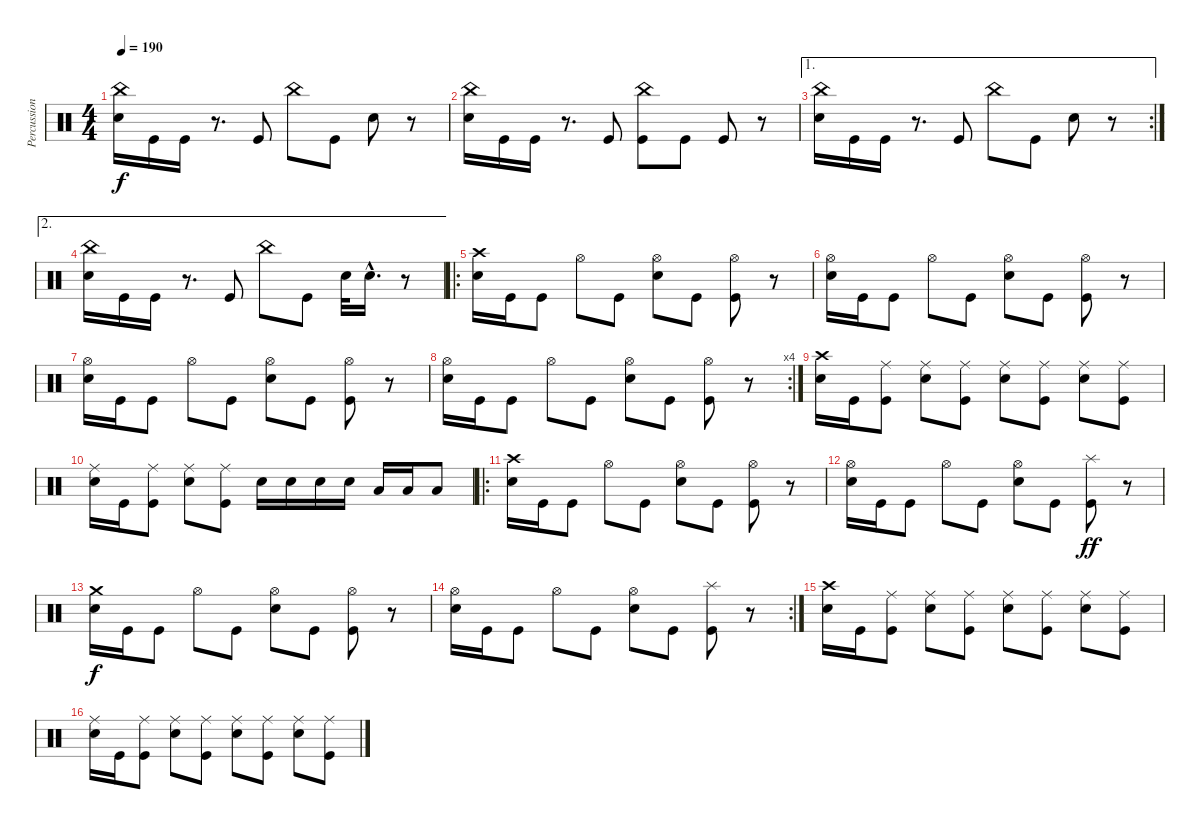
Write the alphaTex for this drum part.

\track ("Percussion" "Percussion") {instrument percussion}
\staff {score}
\articulation defaults
\ts (4 4)
\tempo 190
\clef neutral
\ks c
("China (hit)" "Electric Snare (hit)").16{dy f} "Kick (hit)".16 "Kick (hit)".16 r.8{d} "Kick (hit)".8 "China (hit)".8 "Kick (hit)".8 "Electric Snare (hit)".8 r.8 |
("China (hit)" "Electric Snare (hit)").16 "Kick (hit)".16 "Kick (hit)".16 r.8{d} "Kick (hit)".8 ("China (hit)" "Kick (hit)").8 "Kick (hit)".8 "Kick (hit)".8 r.8 |
\ae 1
\rc 2
("China (hit)" "Electric Snare (hit)").16 "Kick (hit)".16 "Kick (hit)".16 r.8{d} "Kick (hit)".8 "China (hit)".8 "Kick (hit)".8 "Electric Snare (hit)".8 r.8 |
\ae 2
("China (hit)" "Electric Snare (hit)").16 "Kick (hit)".16 "Kick (hit)".16 r.8{d} "Kick (hit)".8 "China (hit)".8 "Kick (hit)".8 "Electric Snare (hit)".32 "Electric Snare (hit)"{hac}.16{d} r.8 |
\ro
("Crash high (hit)" "Electric Snare (hit)").16 "Kick (hit)".16 "Kick (hit)".8 "Hi-Hat (open)".8 "Kick (hit)".8 ("Hi-Hat (open)" "Electric Snare (hit)").8 "Kick (hit)".8 ("Hi-Hat (open)" "Kick (hit)").8 r.8 |
("Hi-Hat (open)" "Electric Snare (hit)").16 "Kick (hit)".16 "Kick (hit)".8 "Hi-Hat (open)".8 "Kick (hit)".8 ("Hi-Hat (open)" "Electric Snare (hit)").8 "Kick (hit)".8 ("Hi-Hat (open)" "Kick (hit)").8 r.8 |
("Hi-Hat (open)" "Electric Snare (hit)").16 "Kick (hit)".16 "Kick (hit)".8 "Hi-Hat (open)".8 "Kick (hit)".8 ("Hi-Hat (open)" "Electric Snare (hit)").8 "Kick (hit)".8 ("Hi-Hat (open)" "Kick (hit)").8 r.8 |
\rc 4
("Hi-Hat (open)" "Electric Snare (hit)").16 "Kick (hit)".16 "Kick (hit)".8 "Hi-Hat (open)".8 "Kick (hit)".8 ("Hi-Hat (open)" "Electric Snare (hit)").8 "Kick (hit)".8 ("Hi-Hat (open)" "Kick (hit)").8 r.8 |
("Crash high (hit)" "Electric Snare (hit)").16 "Kick (hit)".16 ("Ride (middle)" "Kick (hit)").8 ("Ride (middle)" "Electric Snare (hit)").8 ("Ride (middle)" "Kick (hit)").8 ("Ride (middle)" "Electric Snare (hit)").8 ("Ride (middle)" "Kick (hit)").8 ("Ride (middle)" "Electric Snare (hit)").8 ("Ride (middle)" "Kick (hit)").8 |
("Ride (middle)" "Electric Snare (hit)").16 "Kick (hit)".16 ("Ride (middle)" "Kick (hit)").8 ("Ride (middle)" "Electric Snare (hit)").8 ("Ride (middle)" "Kick (hit)").8 "Electric Snare (hit)".16 "Electric Snare (hit)".16 "Electric Snare (hit)".16 "Electric Snare (hit)".16 "Low Tom (hit)".16 "Low Tom (hit)".16 "Low Tom (hit)".8 |
\ro
("Crash high (hit)" "Electric Snare (hit)").16 "Kick (hit)".16 "Kick (hit)".8 "Hi-Hat (open)".8 "Kick (hit)".8 ("Hi-Hat (open)" "Electric Snare (hit)").8 "Kick (hit)".8 ("Hi-Hat (open)" "Kick (hit)").8 r.8 |
("Hi-Hat (open)" "Electric Snare (hit)").16 "Kick (hit)".16 "Kick (hit)".8 "Hi-Hat (open)".8 "Kick (hit)".8 ("Hi-Hat (open)" "Electric Snare (hit)").8 "Kick (hit)".8 ("Splash (hit)" "Kick (hit)").8{dy ff} r.8 |
("Crash medium (hit)" "Electric Snare (hit)").16{dy f} "Kick (hit)".16 "Kick (hit)".8 "Hi-Hat (open)".8 "Kick (hit)".8 ("Hi-Hat (open)" "Electric Snare (hit)").8 "Kick (hit)".8 ("Hi-Hat (open)" "Kick (hit)").8 r.8 |
\rc 2
("Hi-Hat (open)" "Electric Snare (hit)").16 "Kick (hit)".16 "Kick (hit)".8 "Hi-Hat (open)".8 "Kick (hit)".8 ("Hi-Hat (open)" "Electric Snare (hit)").8 "Kick (hit)".8 ("Splash (hit)" "Kick (hit)").8 r.8 |
("Crash high (hit)" "Electric Snare (hit)").16 "Kick (hit)".16 ("Ride (middle)" "Kick (hit)").8 ("Ride (middle)" "Electric Snare (hit)").8 ("Ride (middle)" "Kick (hit)").8 ("Ride (middle)" "Electric Snare (hit)").8 ("Ride (middle)" "Kick (hit)").8 ("Ride (middle)" "Electric Snare (hit)").8 ("Ride (middle)" "Kick (hit)").8 |
("Ride (middle)" "Electric Snare (hit)").16 "Kick (hit)".16 ("Ride (middle)" "Kick (hit)").8 ("Ride (middle)" "Electric Snare (hit)").8 ("Ride (middle)" "Kick (hit)").8 ("Ride (middle)" "Electric Snare (hit)").8 ("Ride (middle)" "Kick (hit)").8 ("Ride (middle)" "Electric Snare (hit)").8 ("Ride (middle)" "Kick (hit)").8
